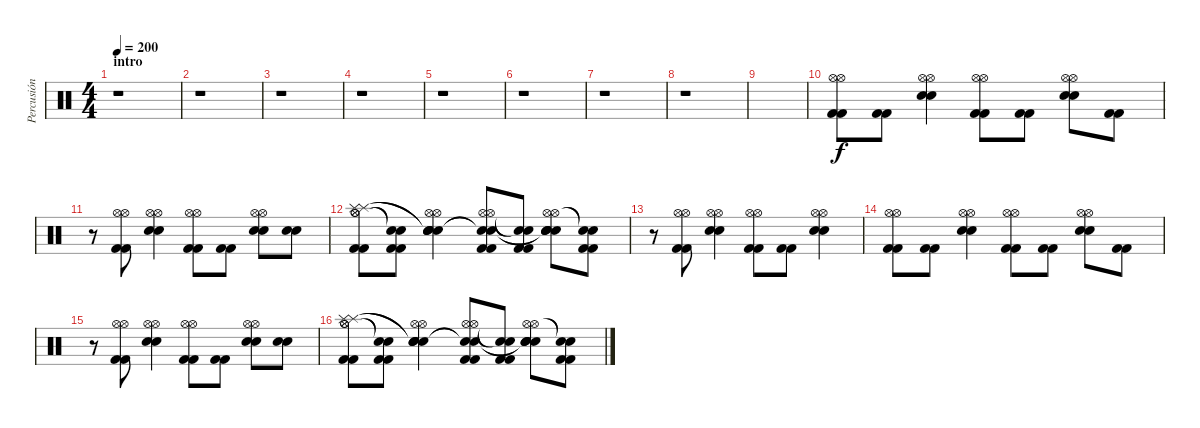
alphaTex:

\track ("Percusión" "Percusión") {instrument percussion}
\staff {score}
\articulation defaults
\ts (4 4)
\section ("" "intro")
\tempo 200
\clef neutral
\ks c
r.1{dy f} |
r.1 |
r.1 |
r.1 |
r.1 |
r.1 |
r.1 |
r.1 |
|
("Kick (hit) 2" "Kick (hit) 2" "Hi-Hat (open)" "Hi-Hat (open)").8 ("Kick (hit) 2" "Kick (hit) 2").8 ("Snare (hit) 2" "Snare (hit) 2" "Hi-Hat (open)" "Hi-Hat (open)").4 ("Kick (hit) 2" "Kick (hit) 2" "Hi-Hat (open)" "Hi-Hat (open)").8 ("Kick (hit) 2" "Kick (hit) 2").8 ("Snare (hit) 2" "Snare (hit) 2" "Hi-Hat (open)" "Hi-Hat (open)").8 ("Kick (hit) 2" "Kick (hit) 2").8 |
r.8 ("Kick (hit) 2" "Kick (hit) 2" "Hi-Hat (open)" "Hi-Hat (open)").8 ("Snare (hit) 2" "Snare (hit) 2" "Hi-Hat (open)" "Hi-Hat (open)").4 ("Kick (hit) 2" "Kick (hit) 2" "Hi-Hat (open)" "Hi-Hat (open)").8 ("Kick (hit) 2" "Kick (hit) 2").8 ("Snare (hit) 2" "Snare (hit) 2" "Hi-Hat (open)" "Hi-Hat (open)").8 ("Snare (hit) 2" "Snare (hit) 2").8 |
("Kick (hit) 2" "Kick (hit) 2" "Hi-Hat (open)" "Hi-Hat (open)" "Splash (hit)" "Splash (hit)").8 ("Kick (hit) 2" "Kick (hit) 2" "Snare (hit)"{t} "Snare (hit)"{t}).8 ("Snare (hit) 2" "Snare (hit) 2" "Hi-Hat (open)" "Hi-Hat (open)" "Snare (hit)"{t} "Snare (hit)"{t}).4 ("Kick (hit) 2" "Kick (hit) 2" "Hi-Hat (open)" "Hi-Hat (open)" "Snare (hit)"{t} "Snare (hit)"{t}).8 ("Kick (hit) 2" "Kick (hit) 2" "Snare (hit)"{t} "Snare (hit)"{t}).8 ("Snare (hit) 2" "Snare (hit) 2" "Hi-Hat (open)" "Hi-Hat (open)" "Snare (hit)"{t} "Snare (hit)"{t}).8 ("Kick (hit) 2" "Kick (hit) 2" "Snare (hit)"{t} "Snare (hit)"{t}).8 |
r.8 ("Kick (hit) 2" "Kick (hit) 2" "Hi-Hat (open)" "Hi-Hat (open)").8 ("Snare (hit) 2" "Snare (hit) 2" "Hi-Hat (open)" "Hi-Hat (open)").4 ("Kick (hit) 2" "Kick (hit) 2" "Hi-Hat (open)" "Hi-Hat (open)").8 ("Kick (hit) 2" "Kick (hit) 2").8 ("Snare (hit) 2" "Snare (hit) 2" "Hi-Hat (open)" "Hi-Hat (open)").4 |
("Kick (hit) 2" "Kick (hit) 2" "Hi-Hat (open)" "Hi-Hat (open)").8 ("Kick (hit) 2" "Kick (hit) 2").8 ("Snare (hit) 2" "Snare (hit) 2" "Hi-Hat (open)" "Hi-Hat (open)").4 ("Kick (hit) 2" "Kick (hit) 2" "Hi-Hat (open)" "Hi-Hat (open)").8 ("Kick (hit) 2" "Kick (hit) 2").8 ("Snare (hit) 2" "Snare (hit) 2" "Hi-Hat (open)" "Hi-Hat (open)").8 ("Kick (hit) 2" "Kick (hit) 2").8 |
r.8 ("Kick (hit) 2" "Kick (hit) 2" "Hi-Hat (open)" "Hi-Hat (open)").8 ("Snare (hit) 2" "Snare (hit) 2" "Hi-Hat (open)" "Hi-Hat (open)").4 ("Kick (hit) 2" "Kick (hit) 2" "Hi-Hat (open)" "Hi-Hat (open)").8 ("Kick (hit) 2" "Kick (hit) 2").8 ("Snare (hit) 2" "Snare (hit) 2" "Hi-Hat (open)" "Hi-Hat (open)").8 ("Snare (hit) 2" "Snare (hit) 2").8 |
("Kick (hit) 2" "Kick (hit) 2" "Hi-Hat (open)" "Hi-Hat (open)" "Splash (hit)" "Splash (hit)").8 ("Kick (hit) 2" "Kick (hit) 2" "Snare (hit)"{t} "Snare (hit)"{t}).8 ("Snare (hit) 2" "Snare (hit) 2" "Hi-Hat (open)" "Hi-Hat (open)" "Snare (hit)"{t} "Snare (hit)"{t}).4 ("Kick (hit) 2" "Kick (hit) 2" "Hi-Hat (open)" "Hi-Hat (open)" "Snare (hit)"{t} "Snare (hit)"{t}).8 ("Kick (hit) 2" "Kick (hit) 2" "Snare (hit)"{t} "Snare (hit)"{t}).8 ("Snare (hit) 2" "Snare (hit) 2" "Hi-Hat (open)" "Hi-Hat (open)" "Snare (hit)"{t} "Snare (hit)"{t}).8 ("Kick (hit) 2" "Kick (hit) 2" "Snare (hit)"{t} "Snare (hit)"{t}).8
